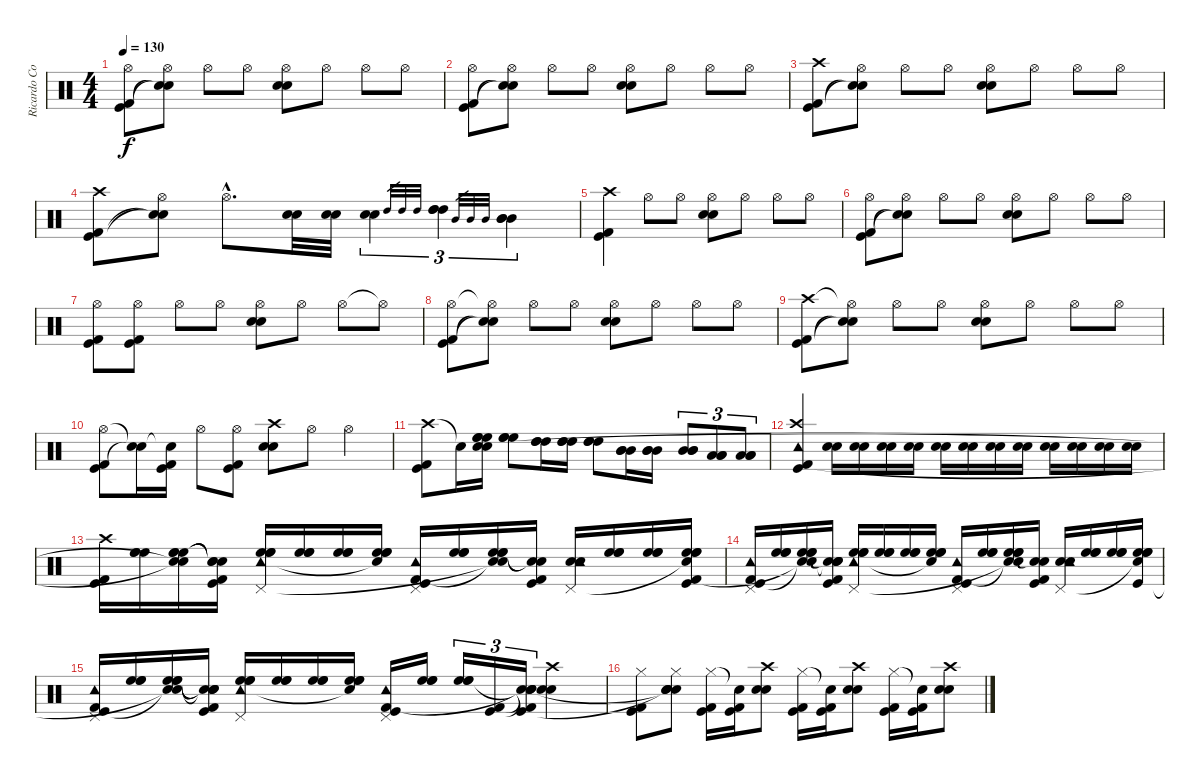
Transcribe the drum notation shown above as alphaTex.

\track ("Ricardo Confessori" "Ricardo Co") {instrument percussion}
\staff {score}
\articulation defaults
\ts (4 4)
\tempo 130
\clef neutral
\ks c
("Hi-Hat (open)" "Kick (hit)" "Kick (hit) 2").8{dy f} ("Hi-Hat (open)" "Snare (hit)"{t} "Snare (hit)"{t}).8 "Hi-Hat (open)".8 "Hi-Hat (open)".8 ("Hi-Hat (open)" "Electric Snare (hit)" "Snare (hit) 2").8 "Hi-Hat (open)".8 "Hi-Hat (open)".8 "Hi-Hat (open)".8 |
("Hi-Hat (open)" "Kick (hit)" "Kick (hit) 2").8 ("Hi-Hat (open)" "Snare (hit)"{t} "Snare (hit)"{t}).8 "Hi-Hat (open)".8 "Hi-Hat (open)".8 ("Hi-Hat (open)" "Electric Snare (hit)" "Snare (hit) 2").8 "Hi-Hat (open)".8 "Hi-Hat (open)".8 "Hi-Hat (open)".8 |
("Crash high (hit)" "Kick (hit)" "Kick (hit) 2").8 ("Hi-Hat (open)" "Snare (hit)"{t} "Snare (hit)"{t}).8 "Hi-Hat (open)".8 "Hi-Hat (open)".8 ("Hi-Hat (open)" "Electric Snare (hit)" "Snare (hit) 2").8 "Hi-Hat (open)".8 "Hi-Hat (open)".8 "Hi-Hat (open)".8 |
("Crash high (hit)" "Kick (hit) 2" "Kick (hit)").8 ("Hi-Hat (open)" "Snare (hit)"{t} "Snare (hit)"{t}).8 "Hi-Hat (open)"{hac}.8{d} ("Electric Snare (hit)" "Snare (hit) 2").32 ("Electric Snare (hit)" "Snare (hit) 2").32 ("Electric Snare (hit)" "Snare (hit) 2").4{tu (3 2)} "High Tom (hit)".32{gr} "High Tom (hit)".32{gr} "High Tom (hit)".32{gr} ("High Tom (hit)" "High Tom (hit)" "High Tom (hit)").4{tu (3 2)} "Mid Tom (hit)".32{gr} "Mid Tom (hit)".32{gr} "Mid Tom (hit)".32{gr} ("Mid Tom (hit)" "Mid Tom (hit)" "Mid Tom (hit)").4{tu (3 2)} |
("Crash high (hit)" "Kick (hit)" "Kick (hit) 2").4 "Hi-Hat (open)".8 "Hi-Hat (open)".8 ("Hi-Hat (open)" "Electric Snare (hit)" "Snare (hit) 2").8 "Hi-Hat (open)".8 "Hi-Hat (open)".8 "Hi-Hat (open)".8 |
("Hi-Hat (open)" "Kick (hit)" "Kick (hit) 2").8 ("Hi-Hat (open)" "Snare (hit)"{t} "Snare (hit)"{t}).8 "Hi-Hat (open)".8 "Hi-Hat (open)".8 ("Hi-Hat (open)" "Electric Snare (hit)" "Snare (hit) 2").8 "Hi-Hat (open)".8 "Hi-Hat (open)".8 "Hi-Hat (open)".8 |
("Hi-Hat (open)" "Kick (hit)" "Kick (hit) 2").8 ("Hi-Hat (open)" "Kick (hit)" "Kick (hit) 2").8 "Hi-Hat (open)".8 "Hi-Hat (open)".8 ("Hi-Hat (open)" "Electric Snare (hit)" "Snare (hit) 2").8 "Hi-Hat (open)".8 "Hi-Hat (open)".8 "Hi-Hat (open)"{t}.8 |
("Hi-Hat (open)" "Kick (hit)" "Kick (hit) 2").8 ("Hi-Hat (open)"{t} "Snare (hit)"{t} "Snare (hit)"{t}).8 "Hi-Hat (open)".8 "Hi-Hat (open)".8 ("Hi-Hat (open)" "Electric Snare (hit)" "Snare (hit) 2").8 "Hi-Hat (open)".8 "Hi-Hat (open)".8 "Hi-Hat (open)".8 |
("Crash high (hit)" "Kick (hit)" "Kick (hit) 2").8 ("Hi-Hat (open)"{t} "Snare (hit)"{t} "Snare (hit)"{t}).8 "Hi-Hat (open)".8 "Hi-Hat (open)".8 ("Hi-Hat (open)" "Electric Snare (hit)" "Snare (hit) 2").8 "Hi-Hat (open)".8 "Hi-Hat (open)".8 "Hi-Hat (open)".8 |
("Hi-Hat (open)" "Kick (hit)" "Kick (hit) 2").8 ("Snare (hit)"{t} "Snare (hit)"{t}).16 ("Snare (hit)"{t} "Kick (hit) 2" "Kick (hit)").16 "Hi-Hat (open)".8 ("Hi-Hat (open)" "Kick (hit) 2" "Kick (hit)").8 ("Crash high (hit)" "Electric Snare (hit)" "Snare (hit) 2").8 "Hi-Hat (open)".8 "Hi-Hat (open)".4 |
("Crash high (hit)" "Kick (hit)" "Kick (hit) 2").8 "Snare (hit)"{t}.16 ("High Floor Tom (hit)" "High Floor Tom (hit)" "High Floor Tom (hit)" "Snare (hit)" "Snare (hit)").16 ("High Floor Tom (hit)" "High Floor Tom (hit)" "High Floor Tom (hit)").8 ("High Tom (hit)" "High Tom (hit)" "High Tom (hit)").16 ("High Tom (hit)" "High Tom (hit)" "High Tom (hit)").16 ("High Tom (hit)" "High Tom (hit)" "High Tom (hit)").8 ("Mid Tom (hit)" "Mid Tom (hit)" "Mid Tom (hit)").16 ("Mid Tom (hit)" "Mid Tom (hit)" "Mid Tom (hit)").16 ("Mid Tom (hit)" "Mid Tom (hit)" "Mid Tom (hit)").8{tu (3 2)} ("Low Tom (hit)" "Low Tom (hit)" "Low Tom (hit)").8{tu (3 2)} ("Low Tom (hit)" "Low Tom (hit)" "Low Tom (hit)").8{tu (3 2)} |
("Crash high (hit)" "Tambourine (hit)" "Kick (hit)" "Kick (hit) 2").4 ("Electric Snare (hit)" "Snare (hit) 2").16 ("Electric Snare (hit)" "Snare (hit) 2").16 ("Electric Snare (hit)" "Snare (hit) 2").16 ("Electric Snare (hit)" "Snare (hit) 2").16 ("Electric Snare (hit)" "Snare (hit) 2").16 ("Electric Snare (hit)" "Snare (hit) 2").16 ("Electric Snare (hit)" "Snare (hit) 2").16 ("Electric Snare (hit)" "Snare (hit) 2").16 ("Electric Snare (hit)" "Snare (hit) 2").16 ("Electric Snare (hit)" "Snare (hit) 2").16 ("Electric Snare (hit)" "Snare (hit) 2").16 ("Electric Snare (hit)" "Snare (hit) 2").16 |
("Crash high (hit)" "Kick (hit) 2" "Kick (hit)").16 ("High Floor Tom (hit)" "High Floor Tom (hit)" "High Floor Tom (hit)").16 ("High Floor Tom (hit)" "High Floor Tom (hit)" "High Floor Tom (hit)" "Snare (hit)"{t} "Snare (hit)"{t}).16 ("Snare (hit)"{t} "Snare (hit)"{t} "Snare (hit)"{t} "Kick (hit) 2" "Kick (hit)").16 ("High Floor Tom (hit)" "High Floor Tom (hit)" "High Floor Tom (hit)" "Tambourine (hit)" "Pedal Hi-Hat (hit)").16 ("High Floor Tom (hit)" "High Floor Tom (hit)" "High Floor Tom (hit)").16 ("High Floor Tom (hit)" "High Floor Tom (hit)" "High Floor Tom (hit)").16 ("High Floor Tom (hit)" "High Floor Tom (hit)" "High Floor Tom (hit)" "Snare (hit)"{t}).16 ("Pedal Hi-Hat (hit)" "Tambourine (hit)" "Kick (hit)" "Kick (hit) 2").16 ("High Floor Tom (hit)" "High Floor Tom (hit)" "High Floor Tom (hit)").16 ("High Floor Tom (hit)" "High Floor Tom (hit)" "High Floor Tom (hit)" "Snare (hit)"{t} "Snare (hit)"{t}).16 ("Snare (hit)"{t} "Snare (hit)"{t} "Kick (hit) 2" "Kick (hit)").16 ("Electric Snare (hit)" "Snare (hit) 2" "Tambourine (hit)" "Pedal Hi-Hat (hit)").16 ("High Floor Tom (hit)" "High Floor Tom (hit)" "High Floor Tom (hit)").16 ("High Floor Tom (hit)" "High Floor Tom (hit)" "High Floor Tom (hit)").16 ("High Floor Tom (hit)" "High Floor Tom (hit)" "High Floor Tom (hit)" "Snare (hit)"{t} "Kick (hit) 2" "Kick (hit)").16 |
("Tambourine (hit)" "Pedal Hi-Hat (hit)" "Kick (hit) 2" "Kick (hit)").16 ("High Floor Tom (hit)" "High Floor Tom (hit)" "High Floor Tom (hit)").16 ("High Floor Tom (hit)" "High Floor Tom (hit)" "High Floor Tom (hit)" "Snare (hit)"{t} "Snare (hit)"{t}).16 ("Snare (hit)"{t} "Snare (hit)"{t} "Snare (hit)"{t} "Snare (hit)"{t} "Kick (hit) 2" "Kick (hit)").16 ("High Floor Tom (hit)" "High Floor Tom (hit)" "High Floor Tom (hit)" "Tambourine (hit)" "Pedal Hi-Hat (hit)").16 ("High Floor Tom (hit)" "High Floor Tom (hit)" "High Floor Tom (hit)").16 ("High Floor Tom (hit)" "High Floor Tom (hit)" "High Floor Tom (hit)").16 ("High Floor Tom (hit)" "High Floor Tom (hit)" "High Floor Tom (hit)" "Snare (hit)"{t}).16 ("Pedal Hi-Hat (hit)" "Tambourine (hit)" "Kick (hit)" "Kick (hit) 2").16 ("High Floor Tom (hit)" "High Floor Tom (hit)" "High Floor Tom (hit)").16 ("High Floor Tom (hit)" "High Floor Tom (hit)" "High Floor Tom (hit)" "Snare (hit)"{t} "Snare (hit)"{t}).16 ("Snare (hit)"{t} "Snare (hit)"{t} "Kick (hit) 2" "Kick (hit)").16 ("Electric Snare (hit)" "Snare (hit) 2" "Tambourine (hit)" "Pedal Hi-Hat (hit)").16 ("High Floor Tom (hit)" "High Floor Tom (hit)" "High Floor Tom (hit)").16 ("High Floor Tom (hit)" "High Floor Tom (hit)" "High Floor Tom (hit)").16 ("High Floor Tom (hit)" "High Floor Tom (hit)" "High Floor Tom (hit)" "Snare (hit)"{t} "Kick (hit)").16 |
("Pedal Hi-Hat (hit)" "Tambourine (hit)" "Kick (hit) 2" "Kick (hit)").16 ("High Floor Tom (hit)" "High Floor Tom (hit)" "High Floor Tom (hit)").16 ("High Floor Tom (hit)" "High Floor Tom (hit)" "High Floor Tom (hit)" "Snare (hit)"{t} "Snare (hit)"{t}).16 ("Snare (hit)"{t} "Snare (hit)"{t} "Snare (hit)"{t} "Snare (hit)"{t} "Kick (hit)" "Kick (hit) 2").16 ("High Floor Tom (hit)" "High Floor Tom (hit)" "High Floor Tom (hit)" "Tambourine (hit)" "Pedal Hi-Hat (hit)").16 ("High Floor Tom (hit)" "High Floor Tom (hit)" "High Floor Tom (hit)").16 ("High Floor Tom (hit)" "High Floor Tom (hit)" "High Floor Tom (hit)").16 ("High Floor Tom (hit)" "High Floor Tom (hit)" "High Floor Tom (hit)" "Snare (hit)"{t}).16 ("Pedal Hi-Hat (hit)" "Tambourine (hit)" "Kick (hit)" "Kick (hit) 2").16 ("High Floor Tom (hit)" "High Floor Tom (hit)" "High Floor Tom (hit)").16 ("High Floor Tom (hit)" "High Floor Tom (hit)" "High Floor Tom (hit)").16{tu (3 2)} ("Kick (hit)" "Kick (hit) 2").16{tu (3 2)} ("Snare (hit)"{t} "Snare (hit)"{t} "Snare (hit)"{t} "Snare (hit)"{t} "Kick (hit)" "Kick (hit) 2").16{tu (3 2)} ("Crash high (hit)" "Electric Snare (hit)" "Snare (hit) 2").4 |
("Hi-Hat (closed)" "Kick (hit)" "Kick (hit) 2").8 ("Hi-Hat (closed)" "Electric Snare (hit)" "Snare (hit) 2" "Snare (hit)"{t} "Snare (hit)"{t}).8 ("Hi-Hat (closed)" "Kick (hit)" "Kick (hit) 2").16 ("Snare (hit)"{t} "Kick (hit)" "Kick (hit) 2").16 ("Crash high (hit)" "Electric Snare (hit)" "Snare (hit) 2").8 ("Hi-Hat (closed)" "Kick (hit)" "Kick (hit) 2").16 ("Snare (hit)"{t} "Kick (hit)" "Kick (hit) 2").16 ("Crash high (hit)" "Electric Snare (hit)" "Snare (hit) 2").8 ("Hi-Hat (closed)" "Kick (hit)" "Kick (hit) 2").16 ("Snare (hit)"{t} "Kick (hit)" "Kick (hit) 2").16 ("Crash high (hit)" "Electric Snare (hit)" "Snare (hit) 2").8
